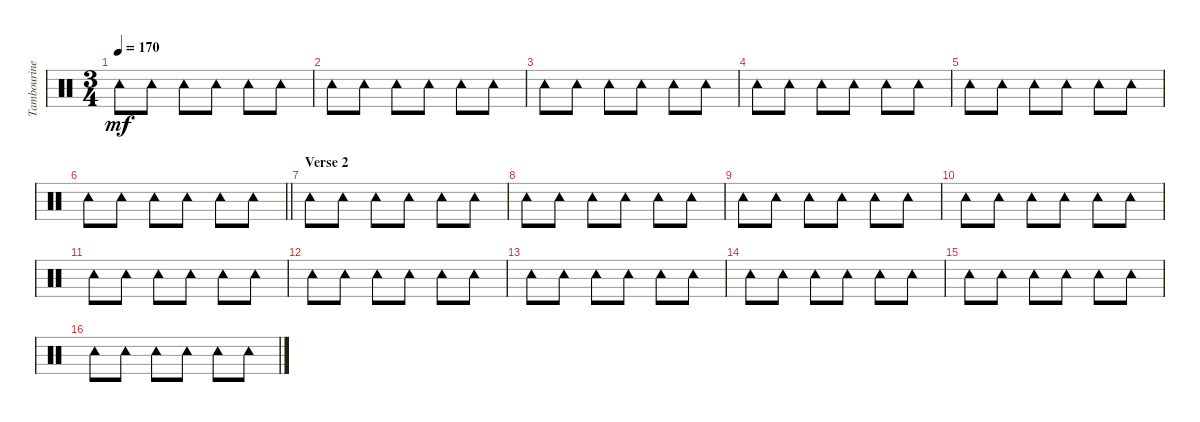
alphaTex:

\track ("Tambourine" "Tambourine") {instrument percussion}
\staff {score}
\articulation defaults
\ts (3 4)
\tempo 170
\clef neutral
\ks c "Tambourine (hit)".8{dy mf} "Tambourine (hit)".8 "Tambourine (hit)".8 "Tambourine (hit)".8 "Tambourine (hit)".8 "Tambourine (hit)".8
|
"Tambourine (hit)".8 "Tambourine (hit)".8 "Tambourine (hit)".8 "Tambourine (hit)".8 "Tambourine (hit)".8 "Tambourine (hit)".8 |
"Tambourine (hit)".8 "Tambourine (hit)".8 "Tambourine (hit)".8 "Tambourine (hit)".8 "Tambourine (hit)".8 "Tambourine (hit)".8 |
"Tambourine (hit)".8 "Tambourine (hit)".8 "Tambourine (hit)".8 "Tambourine (hit)".8 "Tambourine (hit)".8 "Tambourine (hit)".8 |
"Tambourine (hit)".8 "Tambourine (hit)".8 "Tambourine (hit)".8 "Tambourine (hit)".8 "Tambourine (hit)".8 "Tambourine (hit)".8 |
\barLineRight lightlight "Tambourine (hit)".8 "Tambourine (hit)".8 "Tambourine (hit)".8 "Tambourine (hit)".8 "Tambourine (hit)".8 "Tambourine (hit)".8
|
\section ("" "Verse 2")
"Tambourine (hit)".8 "Tambourine (hit)".8 "Tambourine (hit)".8 "Tambourine (hit)".8 "Tambourine (hit)".8 "Tambourine (hit)".8 |
"Tambourine (hit)".8 "Tambourine (hit)".8 "Tambourine (hit)".8 "Tambourine (hit)".8 "Tambourine (hit)".8 "Tambourine (hit)".8 |
"Tambourine (hit)".8 "Tambourine (hit)".8 "Tambourine (hit)".8 "Tambourine (hit)".8 "Tambourine (hit)".8 "Tambourine (hit)".8 |
"Tambourine (hit)".8 "Tambourine (hit)".8 "Tambourine (hit)".8 "Tambourine (hit)".8 "Tambourine (hit)".8 "Tambourine (hit)".8 |
"Tambourine (hit)".8 "Tambourine (hit)".8 "Tambourine (hit)".8 "Tambourine (hit)".8 "Tambourine (hit)".8 "Tambourine (hit)".8 |
"Tambourine (hit)".8 "Tambourine (hit)".8 "Tambourine (hit)".8 "Tambourine (hit)".8 "Tambourine (hit)".8 "Tambourine (hit)".8 |
"Tambourine (hit)".8 "Tambourine (hit)".8 "Tambourine (hit)".8 "Tambourine (hit)".8 "Tambourine (hit)".8 "Tambourine (hit)".8 |
"Tambourine (hit)".8 "Tambourine (hit)".8 "Tambourine (hit)".8 "Tambourine (hit)".8 "Tambourine (hit)".8 "Tambourine (hit)".8 |
"Tambourine (hit)".8 "Tambourine (hit)".8 "Tambourine (hit)".8 "Tambourine (hit)".8 "Tambourine (hit)".8 "Tambourine (hit)".8 |
"Tambourine (hit)".8 "Tambourine (hit)".8 "Tambourine (hit)".8 "Tambourine (hit)".8 "Tambourine (hit)".8 "Tambourine (hit)".8
